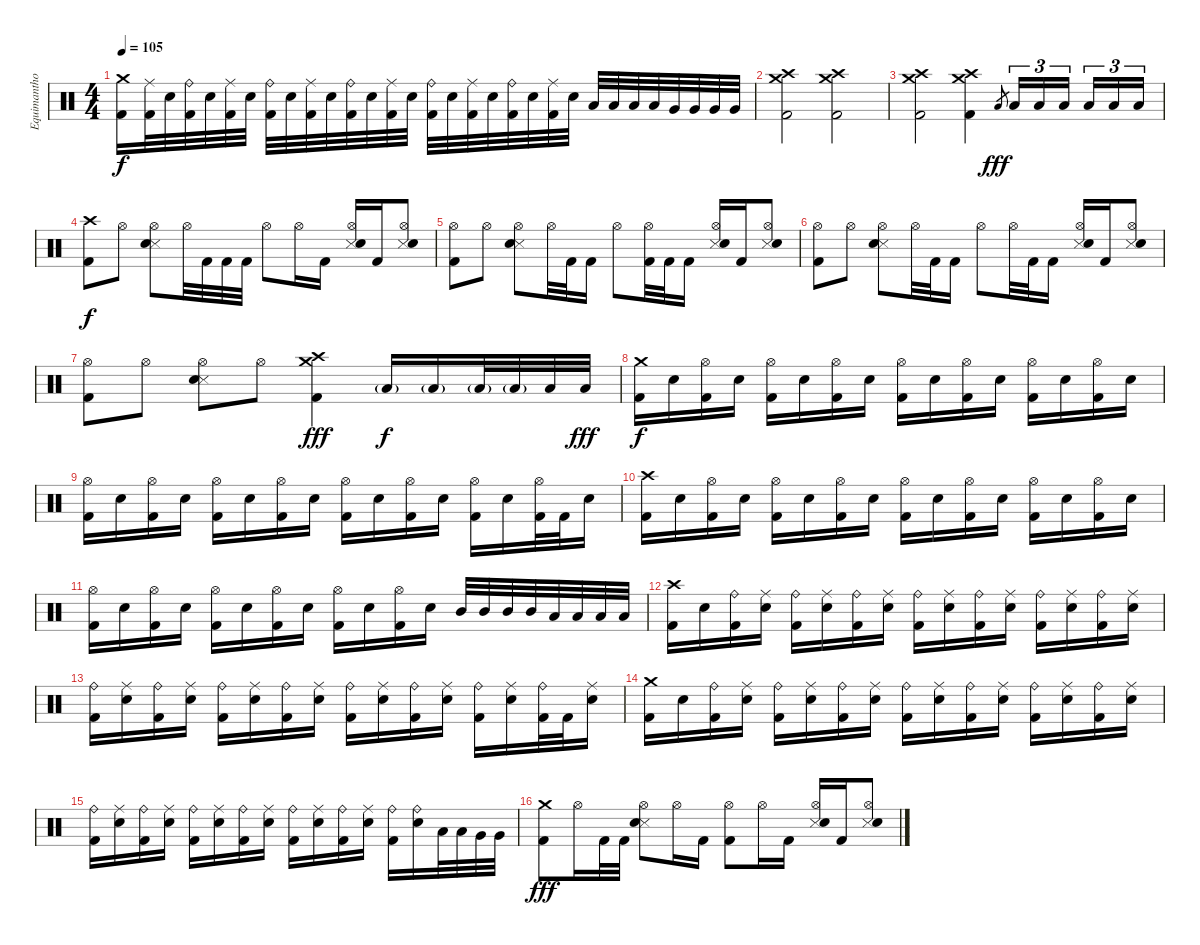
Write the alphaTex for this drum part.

\track ("Equimanthorn" "Equimantho") {instrument percussion}
\staff {score}
\articulation defaults
\ts (4 4)
\tempo 105
\clef neutral
\ks c
("Crash medium (hit)" "Kick (hit) 2").16{dy f} ("Ride (middle)" "Kick (hit) 2").32 "Snare (hit) 2".32 ("Ride (bell)" "Kick (hit) 2").32 "Snare (hit) 2".32 ("Ride (middle)" "Kick (hit) 2").32 "Snare (hit) 2".32 ("Ride (bell)" "Kick (hit) 2").32 "Snare (hit) 2".32 ("Ride (middle)" "Kick (hit) 2").32 "Snare (hit) 2".32 ("Ride (bell)" "Kick (hit) 2").32 "Snare (hit) 2".32 ("Ride (middle)" "Kick (hit) 2").32 "Snare (hit) 2".32 ("Ride (bell)" "Kick (hit) 2").32 "Snare (hit) 2".32 ("Ride (middle)" "Kick (hit) 2").32 "Snare (hit) 2".32 ("Ride (bell)" "Kick (hit) 2").32 "Snare (hit) 2".32 ("Ride (middle)" "Kick (hit) 2").32 "Snare (hit) 2".32 "Low Tom (hit)".32 "Low Tom (hit)".32 "Low Tom (hit)".32 "Low Tom (hit)".32 "Very Low Tom (hit)".32 "Very Low Tom (hit)".32 "Very Low Tom (hit)".32 "Very Low Tom (hit)".32 |
("Crash medium (hit)" "Crash high (hit)" "Kick (hit) 2").2 ("Crash medium (hit)" "Crash high (hit)" "Kick (hit) 2").2 |
("Crash medium (hit)" "Crash high (hit)" "Kick (hit) 2").2 ("Crash medium (hit)" "Crash high (hit)" "Kick (hit) 2").4 "Low Floor Tom (hit)".8{gr dy fff} "Low Floor Tom (hit)".16{tu (3 2)} "Low Floor Tom (hit)".16{tu (3 2)} "Low Floor Tom (hit)".16{tu (3 2) beam splitsecondary} "Low Floor Tom (hit)".16{tu (3 2)} "Low Floor Tom (hit)".16{tu (3 2)} "Low Floor Tom (hit)".16{tu (3 2)} |
("Crash high (hit)" "Kick (hit) 2").8{dy f} "Hi-Hat (open)".8 ("Hi-Hat (open)" "Snare (side stick) 3" "Snare (hit) 2").8 "Hi-Hat (open)".32 "Kick (hit) 2".32 "Kick (hit) 2".32 "Kick (hit) 2".32 "Hi-Hat (open)".8 "Hi-Hat (open)".16 "Kick (hit) 2".16 ("Hi-Hat (open)" "Snare (side stick) 3" "Snare (hit) 2").16 "Kick (hit) 2".16 ("Hi-Hat (open)" "Snare (side stick) 3" "Snare (hit) 2").8 |
("Hi-Hat (open)" "Kick (hit) 2").8 "Hi-Hat (open)".8 ("Hi-Hat (open)" "Snare (side stick) 3" "Snare (hit) 2").8 "Hi-Hat (open)".32 "Kick (hit) 2".32 "Kick (hit) 2".16 "Hi-Hat (open)".8 ("Hi-Hat (open)" "Kick (hit) 2").32 "Kick (hit) 2".32 "Kick (hit) 2".16 ("Hi-Hat (open)" "Snare (side stick) 3" "Snare (hit) 2").16 "Kick (hit) 2".16 ("Hi-Hat (open)" "Snare (side stick) 3" "Snare (hit) 2").8 |
("Hi-Hat (open)" "Kick (hit) 2").8 "Hi-Hat (open)".8 ("Hi-Hat (open)" "Snare (side stick) 3" "Snare (hit) 2").8 "Hi-Hat (open)".32 "Kick (hit) 2".32 "Kick (hit) 2".16 "Hi-Hat (open)".8 "Hi-Hat (open)".32 "Kick (hit) 2".32 "Kick (hit) 2".16 ("Hi-Hat (open)" "Snare (side stick) 3" "Snare (hit) 2").16 "Kick (hit) 2".16 ("Hi-Hat (open)" "Snare (side stick) 3" "Snare (hit) 2").8 |
("Hi-Hat (open)" "Kick (hit) 2").8 "Hi-Hat (open)".8 ("Hi-Hat (open)" "Snare (side stick) 3" "Snare (hit) 2").8 "Hi-Hat (open)".8 ("Crash high (hit)" "Crash medium (hit)" "Kick (hit) 2").4{dy fff} "Low Floor Tom (hit)"{g}.16{dy f} "Low Floor Tom (hit)"{g}.16 "Low Floor Tom (hit)"{g}.32 "Low Floor Tom (hit)"{g}.32 "Low Floor Tom (hit)".32 "Low Floor Tom (hit)".32{dy fff} |
("Crash medium (hit)" "Kick (hit) 2").16{dy f} "Snare (hit) 2".16 ("Hi-Hat (open)" "Kick (hit) 2").16 "Snare (hit) 2".16 ("Hi-Hat (open)" "Kick (hit) 2").16 "Snare (hit) 2".16 ("Hi-Hat (open)" "Kick (hit) 2").16 "Snare (hit) 2".16 ("Hi-Hat (open)" "Kick (hit) 2").16 "Snare (hit) 2".16 ("Hi-Hat (open)" "Kick (hit) 2").16 "Snare (hit) 2".16 ("Hi-Hat (open)" "Kick (hit) 2").16 "Snare (hit) 2".16 ("Hi-Hat (open)" "Kick (hit) 2").16 "Snare (hit) 2".16 |
("Hi-Hat (open)" "Kick (hit) 2").16 "Snare (hit) 2".16 ("Hi-Hat (open)" "Kick (hit) 2").16 "Snare (hit) 2".16 ("Hi-Hat (open)" "Kick (hit) 2").16 "Snare (hit) 2".16 ("Hi-Hat (open)" "Kick (hit) 2").16 "Snare (hit) 2".16 ("Hi-Hat (open)" "Kick (hit) 2").16 "Snare (hit) 2".16 ("Hi-Hat (open)" "Kick (hit) 2").16 "Snare (hit) 2".16 ("Hi-Hat (open)" "Kick (hit) 2").16 "Snare (hit) 2".16 ("Hi-Hat (open)" "Kick (hit) 2").32 "Kick (hit) 2".32 "Snare (hit) 2".16 |
("Crash high (hit)" "Kick (hit) 2").16 "Snare (hit) 2".16 ("Hi-Hat (open)" "Kick (hit) 2").16 "Snare (hit) 2".16 ("Hi-Hat (open)" "Kick (hit) 2").16 "Snare (hit) 2".16 ("Hi-Hat (open)" "Kick (hit) 2").16 "Snare (hit) 2".16 ("Hi-Hat (open)" "Kick (hit) 2").16 "Snare (hit) 2".16 ("Hi-Hat (open)" "Kick (hit) 2").16 "Snare (hit) 2".16 ("Hi-Hat (open)" "Kick (hit) 2").16 "Snare (hit) 2".16 ("Hi-Hat (open)" "Kick (hit) 2").16 "Snare (hit) 2".16 |
("Hi-Hat (open)" "Kick (hit) 2").16 "Snare (hit) 2".16 ("Hi-Hat (open)" "Kick (hit) 2").16 "Snare (hit) 2".16 ("Hi-Hat (open)" "Kick (hit) 2").16 "Snare (hit) 2".16 ("Hi-Hat (open)" "Kick (hit) 2").16 "Snare (hit) 2".16 ("Hi-Hat (open)" "Kick (hit) 2").16 "Snare (hit) 2".16 ("Hi-Hat (open)" "Kick (hit) 2").16 "Snare (hit) 2".16 "Mid Tom (hit)".32 "Mid Tom (hit)".32 "Mid Tom (hit)".32 "Mid Tom (hit)".32 "Low Tom (hit)".32 "Low Tom (hit)".32 "Low Tom (hit)".32 "Low Tom (hit)".32 |
("Crash high (hit)" "Kick (hit) 2").16 "Snare (hit) 2".16 ("Ride (bell)" "Kick (hit) 2").16 ("Ride (middle)" "Snare (hit) 2").16 ("Ride (bell)" "Kick (hit) 2").16 ("Ride (middle)" "Snare (hit) 2").16 ("Ride (bell)" "Kick (hit) 2").16 ("Ride (middle)" "Snare (hit) 2").16 ("Ride (bell)" "Kick (hit) 2").16 ("Ride (middle)" "Snare (hit) 2").16 ("Ride (bell)" "Kick (hit) 2").16 ("Ride (middle)" "Snare (hit) 2").16 ("Ride (bell)" "Kick (hit) 2").16 ("Ride (middle)" "Snare (hit) 2").16 ("Ride (bell)" "Kick (hit) 2").16 ("Ride (middle)" "Snare (hit) 2").16 |
("Ride (bell)" "Kick (hit) 2").16 ("Ride (middle)" "Snare (hit) 2").16 ("Ride (bell)" "Kick (hit) 2").16 ("Ride (middle)" "Snare (hit) 2").16 ("Ride (bell)" "Kick (hit) 2").16 ("Ride (middle)" "Snare (hit) 2").16 ("Ride (bell)" "Kick (hit) 2").16 ("Ride (middle)" "Snare (hit) 2").16 ("Ride (bell)" "Kick (hit) 2").16 ("Ride (middle)" "Snare (hit) 2").16 ("Ride (bell)" "Kick (hit) 2").16 ("Ride (middle)" "Snare (hit) 2").16 ("Ride (bell)" "Kick (hit) 2").16 ("Ride (middle)" "Snare (hit) 2").16 ("Ride (bell)" "Kick (hit) 2").32 "Kick (hit) 2".32 ("Ride (middle)" "Snare (hit) 2").16 |
("Crash medium (hit)" "Kick (hit) 2").16 "Snare (hit) 2".16 ("Ride (bell)" "Kick (hit) 2").16 ("Ride (middle)" "Snare (hit) 2").16 ("Ride (bell)" "Kick (hit) 2").16 ("Ride (middle)" "Snare (hit) 2").16 ("Ride (bell)" "Kick (hit) 2").16 ("Ride (middle)" "Snare (hit) 2").16 ("Ride (bell)" "Kick (hit) 2").16 ("Ride (middle)" "Snare (hit) 2").16 ("Ride (bell)" "Kick (hit) 2").16 ("Ride (middle)" "Snare (hit) 2").16 ("Ride (bell)" "Kick (hit) 2").16 ("Ride (middle)" "Snare (hit) 2").16 ("Ride (bell)" "Kick (hit) 2").16 ("Ride (middle)" "Snare (hit) 2").16 |
("Ride (bell)" "Kick (hit) 2").16 ("Ride (middle)" "Snare (hit) 2").16 ("Ride (bell)" "Kick (hit) 2").16 ("Ride (middle)" "Snare (hit) 2").16 ("Ride (bell)" "Kick (hit) 2").16 ("Ride (middle)" "Snare (hit) 2").16 ("Ride (bell)" "Kick (hit) 2").16 ("Ride (middle)" "Snare (hit) 2").16 ("Ride (bell)" "Kick (hit) 2").16 ("Ride (middle)" "Snare (hit) 2").16 ("Ride (bell)" "Kick (hit) 2").16 ("Ride (middle)" "Snare (hit) 2").16 ("Ride (bell)" "Kick (hit) 2").16 ("Ride (bell)" "Snare (hit) 2").16 "Low Tom (hit)".32 "Low Tom (hit)".32 "Very Low Tom (hit)".32 "Very Low Tom (hit)".32 |
("Crash medium (hit)" "Kick (hit) 2").8{dy fff} "Hi-Hat (open)".16 "Kick (hit) 2".32 "Kick (hit) 2".32 ("Hi-Hat (open)" "Snare (side stick) 3" "Snare (hit) 2").8 "Hi-Hat (open)".16 "Kick (hit) 2".16 ("Hi-Hat (open)" "Kick (hit) 2").8 "Hi-Hat (open)".16 "Kick (hit) 2".16 ("Hi-Hat (open)" "Snare (side stick) 3" "Snare (hit) 2").16 "Kick (hit) 2".16 ("Hi-Hat (open)" "Snare (side stick) 3" "Snare (hit) 2").8
